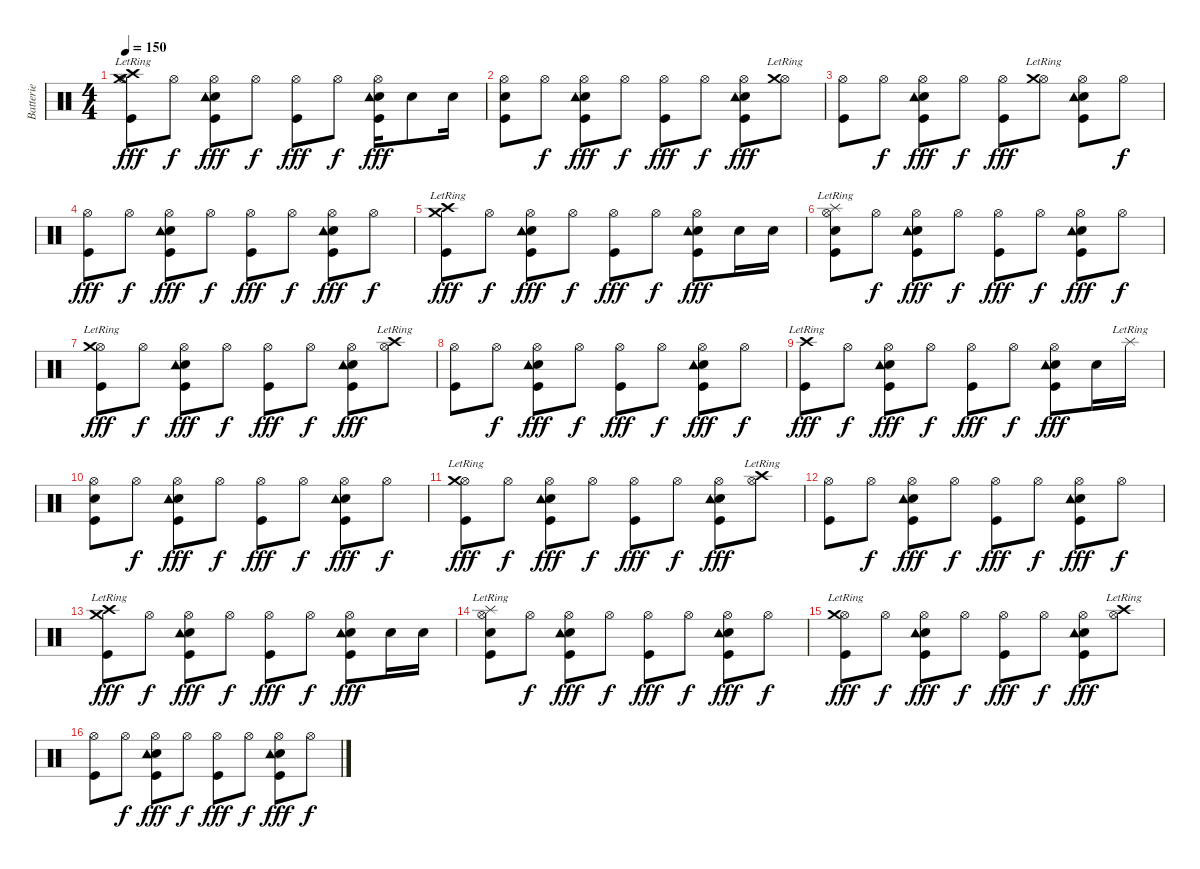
\track ("Batterie" "Batterie") {instrument percussion}
\staff {score}
\articulation defaults
\ts (4 4)
\tempo 150
\clef neutral
\ks c
("Hi-Hat (open)" "Kick (hit)" "Crash high (hit)"{lr} "Crash medium (hit)"{lr}).8{dy fff} "Hi-Hat (open)".8{dy f} ("Hi-Hat (open)" "Kick (hit)" "Electric Snare (hit)" "Tambourine (hit)").8{dy fff} "Hi-Hat (open)".8{dy f} ("Hi-Hat (open)" "Kick (hit)").8{dy fff} "Hi-Hat (open)".8{dy f} ("Hi-Hat (open)" "Kick (hit)" "Electric Snare (hit)" "Tambourine (hit)").16{dy fff} "Electric Snare (hit)".8 "Electric Snare (hit)".16 |
("Hi-Hat (open)" "Kick (hit)" "Electric Snare (hit)").8 "Hi-Hat (open)".8{dy f} ("Hi-Hat (open)" "Kick (hit)" "Electric Snare (hit)" "Tambourine (hit)").8{dy fff} "Hi-Hat (open)".8{dy f} ("Hi-Hat (open)" "Kick (hit)").8{dy fff} "Hi-Hat (open)".8{dy f} ("Hi-Hat (open)" "Kick (hit)" "Electric Snare (hit)" "Tambourine (hit)").8{dy fff} ("Hi-Hat (open)" "Crash medium (hit)"{lr}).8 |
("Hi-Hat (open)" "Kick (hit)").8 "Hi-Hat (open)".8{dy f} ("Hi-Hat (open)" "Kick (hit)" "Electric Snare (hit)" "Tambourine (hit)").8{dy fff} "Hi-Hat (open)".8{dy f} ("Hi-Hat (open)" "Kick (hit)").8{dy fff} ("Hi-Hat (open)" "Crash medium (hit)"{lr}).8 ("Hi-Hat (open)" "Kick (hit)" "Electric Snare (hit)" "Tambourine (hit)").8 "Hi-Hat (open)".8{dy f} |
("Hi-Hat (open)" "Kick (hit)").8{dy fff} "Hi-Hat (open)".8{dy f} ("Hi-Hat (open)" "Kick (hit)" "Electric Snare (hit)" "Tambourine (hit)").8{dy fff} "Hi-Hat (open)".8{dy f} ("Hi-Hat (open)" "Kick (hit)").8{dy fff} "Hi-Hat (open)".8{dy f} ("Hi-Hat (open)" "Kick (hit)" "Electric Snare (hit)" "Tambourine (hit)").8{dy fff} "Hi-Hat (open)".8{dy f} |
("Kick (hit)" "Crash high (hit)"{lr} "Crash medium (hit)"{lr}).8{dy fff} "Hi-Hat (open)".8{dy f} ("Hi-Hat (open)" "Kick (hit)" "Electric Snare (hit)" "Tambourine (hit)").8{dy fff} "Hi-Hat (open)".8{dy f} ("Hi-Hat (open)" "Kick (hit)").8{dy fff} "Hi-Hat (open)".8{dy f} ("Hi-Hat (open)" "Kick (hit)" "Electric Snare (hit)" "Tambourine (hit)").8{dy fff} "Electric Snare (hit)".16 "Electric Snare (hit)".16 |
("Hi-Hat (open)" "Kick (hit)" "Electric Snare (hit)" "Splash (hit)"{lr}).8 "Hi-Hat (open)".8{dy f} ("Hi-Hat (open)" "Kick (hit)" "Electric Snare (hit)" "Tambourine (hit)").8{dy fff} "Hi-Hat (open)".8{dy f} ("Hi-Hat (open)" "Kick (hit)").8{dy fff} "Hi-Hat (open)".8{dy f} ("Hi-Hat (open)" "Kick (hit)" "Electric Snare (hit)" "Tambourine (hit)").8{dy fff} "Hi-Hat (open)".8{dy f} |
("Hi-Hat (open)" "Kick (hit)" "Crash medium (hit)"{lr}).8{dy fff} "Hi-Hat (open)".8{dy f} ("Hi-Hat (open)" "Kick (hit)" "Electric Snare (hit)" "Tambourine (hit)").8{dy fff} "Hi-Hat (open)".8{dy f} ("Hi-Hat (open)" "Kick (hit)").8{dy fff} "Hi-Hat (open)".8{dy f} ("Hi-Hat (open)" "Kick (hit)" "Electric Snare (hit)" "Tambourine (hit)").8{dy fff} ("Hi-Hat (open)" "Crash high (hit)"{lr}).8 |
("Hi-Hat (open)" "Kick (hit)").8 "Hi-Hat (open)".8{dy f} ("Hi-Hat (open)" "Kick (hit)" "Electric Snare (hit)" "Tambourine (hit)").8{dy fff} "Hi-Hat (open)".8{dy f} ("Hi-Hat (open)" "Kick (hit)").8{dy fff} "Hi-Hat (open)".8{dy f} ("Hi-Hat (open)" "Kick (hit)" "Electric Snare (hit)" "Tambourine (hit)").8{dy fff} "Hi-Hat (open)".8{dy f} |
("Kick (hit)" "Crash high (hit)"{lr}).8{dy fff} "Hi-Hat (open)".8{dy f} ("Hi-Hat (open)" "Kick (hit)" "Electric Snare (hit)" "Tambourine (hit)").8{dy fff} "Hi-Hat (open)".8{dy f} ("Hi-Hat (open)" "Kick (hit)").8{dy fff} "Hi-Hat (open)".8{dy f} ("Hi-Hat (open)" "Kick (hit)" "Electric Snare (hit)" "Tambourine (hit)").8{dy fff} "Electric Snare (hit)".16 "Splash (hit)"{lr}.16 |
("Hi-Hat (open)" "Kick (hit)" "Electric Snare (hit)").8 "Hi-Hat (open)".8{dy f} ("Hi-Hat (open)" "Kick (hit)" "Electric Snare (hit)" "Tambourine (hit)").8{dy fff} "Hi-Hat (open)".8{dy f} ("Hi-Hat (open)" "Kick (hit)").8{dy fff} "Hi-Hat (open)".8{dy f} ("Hi-Hat (open)" "Kick (hit)" "Electric Snare (hit)" "Tambourine (hit)").8{dy fff} "Hi-Hat (open)".8{dy f} |
("Hi-Hat (open)" "Kick (hit)" "Crash medium (hit)"{lr}).8{dy fff} "Hi-Hat (open)".8{dy f} ("Hi-Hat (open)" "Kick (hit)" "Electric Snare (hit)" "Tambourine (hit)").8{dy fff} "Hi-Hat (open)".8{dy f} ("Hi-Hat (open)" "Kick (hit)").8{dy fff} "Hi-Hat (open)".8{dy f} ("Hi-Hat (open)" "Kick (hit)" "Electric Snare (hit)" "Tambourine (hit)").8{dy fff} ("Hi-Hat (open)" "Crash high (hit)"{lr}).8 |
("Hi-Hat (open)" "Kick (hit)").8 "Hi-Hat (open)".8{dy f} ("Hi-Hat (open)" "Kick (hit)" "Electric Snare (hit)" "Tambourine (hit)").8{dy fff} "Hi-Hat (open)".8{dy f} ("Hi-Hat (open)" "Kick (hit)").8{dy fff} "Hi-Hat (open)".8{dy f} ("Hi-Hat (open)" "Kick (hit)" "Electric Snare (hit)" "Tambourine (hit)").8{dy fff} "Hi-Hat (open)".8{dy f} |
("Kick (hit)" "Crash high (hit)"{lr} "Crash medium (hit)"{lr}).8{dy fff} "Hi-Hat (open)".8{dy f} ("Hi-Hat (open)" "Kick (hit)" "Electric Snare (hit)" "Tambourine (hit)").8{dy fff} "Hi-Hat (open)".8{dy f} ("Hi-Hat (open)" "Kick (hit)").8{dy fff} "Hi-Hat (open)".8{dy f} ("Hi-Hat (open)" "Kick (hit)" "Electric Snare (hit)" "Tambourine (hit)").8{dy fff} "Electric Snare (hit)".16 "Electric Snare (hit)".16 |
("Hi-Hat (open)" "Kick (hit)" "Electric Snare (hit)" "Splash (hit)"{lr}).8 "Hi-Hat (open)".8{dy f} ("Hi-Hat (open)" "Kick (hit)" "Electric Snare (hit)" "Tambourine (hit)").8{dy fff} "Hi-Hat (open)".8{dy f} ("Hi-Hat (open)" "Kick (hit)").8{dy fff} "Hi-Hat (open)".8{dy f} ("Hi-Hat (open)" "Kick (hit)" "Electric Snare (hit)" "Tambourine (hit)").8{dy fff} "Hi-Hat (open)".8{dy f} |
("Hi-Hat (open)" "Kick (hit)" "Crash medium (hit)"{lr}).8{dy fff} "Hi-Hat (open)".8{dy f} ("Hi-Hat (open)" "Kick (hit)" "Electric Snare (hit)" "Tambourine (hit)").8{dy fff} "Hi-Hat (open)".8{dy f} ("Hi-Hat (open)" "Kick (hit)").8{dy fff} "Hi-Hat (open)".8{dy f} ("Hi-Hat (open)" "Kick (hit)" "Electric Snare (hit)" "Tambourine (hit)").8{dy fff} ("Hi-Hat (open)" "Crash high (hit)"{lr}).8 |
("Hi-Hat (open)" "Kick (hit)").8 "Hi-Hat (open)".8{dy f} ("Hi-Hat (open)" "Kick (hit)" "Electric Snare (hit)" "Tambourine (hit)").8{dy fff} "Hi-Hat (open)".8{dy f} ("Hi-Hat (open)" "Kick (hit)").8{dy fff} "Hi-Hat (open)".8{dy f} ("Hi-Hat (open)" "Kick (hit)" "Electric Snare (hit)" "Tambourine (hit)").8{dy fff} "Hi-Hat (open)".8{dy f}
